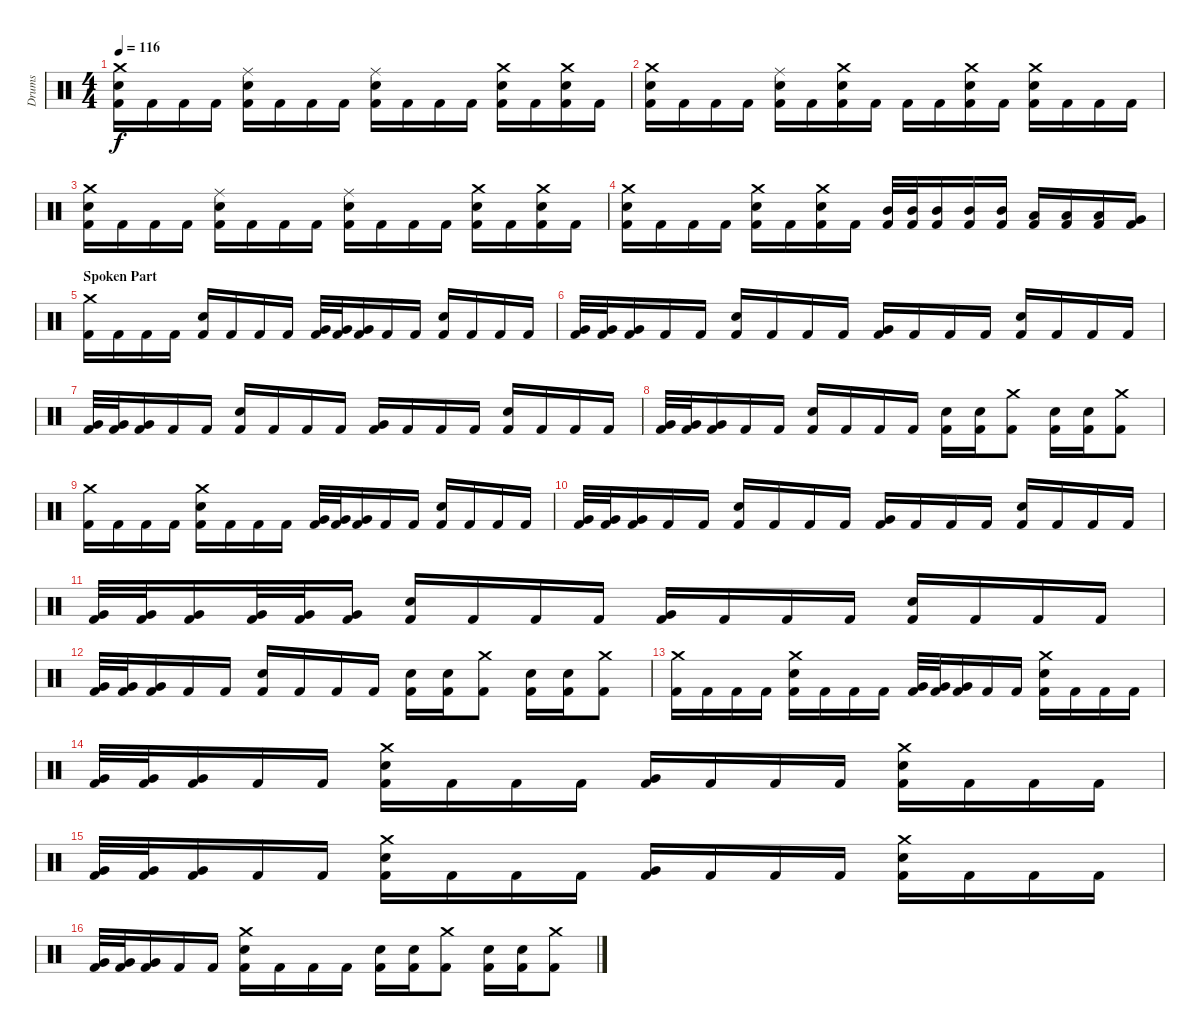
\track ("Drums" "Drums") {instrument percussion}
\staff {score}
\articulation defaults
\ts (4 4)
\section ("" "")
\tempo 116
\clef neutral
\ks c
("Crash medium (hit)" "Electric Snare (hit)" "Kick (hit) 2").16{dy f} "Kick (hit) 2".16 "Kick (hit) 2".16 "Kick (hit) 2".16 ("Ride (middle)" "Electric Snare (hit)" "Kick (hit) 2").16 "Kick (hit) 2".16 "Kick (hit) 2".16 "Kick (hit) 2".16 ("Ride (middle)" "Electric Snare (hit)" "Kick (hit) 2").16 "Kick (hit) 2".16 "Kick (hit) 2".16 "Kick (hit) 2".16 ("Crash medium (hit)" "Electric Snare (hit)" "Kick (hit) 2").16 "Kick (hit) 2".16 ("Crash medium (hit)" "Electric Snare (hit)" "Kick (hit) 2").16 "Kick (hit) 2".16 |
("Crash medium (hit)" "Electric Snare (hit)" "Kick (hit) 2").16 "Kick (hit) 2".16 "Kick (hit) 2".16 "Kick (hit) 2".16 ("Ride (middle)" "Electric Snare (hit)" "Kick (hit) 2").16 "Kick (hit) 2".16 ("Crash medium (hit)" "Electric Snare (hit)" "Kick (hit) 2").16 "Kick (hit) 2".16 "Kick (hit) 2".16 "Kick (hit) 2".16 ("Crash medium (hit)" "Electric Snare (hit)" "Kick (hit) 2").16 "Kick (hit) 2".16 ("Crash medium (hit)" "Electric Snare (hit)" "Kick (hit) 2").16 "Kick (hit) 2".16 "Kick (hit) 2".16 "Kick (hit) 2".16 |
("Crash medium (hit)" "Electric Snare (hit)" "Kick (hit) 2").16 "Kick (hit) 2".16 "Kick (hit) 2".16 "Kick (hit) 2".16 ("Ride (middle)" "Electric Snare (hit)" "Kick (hit) 2").16 "Kick (hit) 2".16 "Kick (hit) 2".16 "Kick (hit) 2".16 ("Ride (middle)" "Electric Snare (hit)" "Kick (hit) 2").16 "Kick (hit) 2".16 "Kick (hit) 2".16 "Kick (hit) 2".16 ("Crash medium (hit)" "Electric Snare (hit)" "Kick (hit) 2").16 "Kick (hit) 2".16 ("Crash medium (hit)" "Electric Snare (hit)" "Kick (hit) 2").16 "Kick (hit) 2".16 |
("Crash medium (hit)" "Electric Snare (hit)" "Kick (hit) 2").16 "Kick (hit) 2".16 "Kick (hit) 2".16 "Kick (hit) 2".16 ("Crash medium (hit)" "Electric Snare (hit)" "Kick (hit) 2").16 "Kick (hit) 2".16 ("Crash medium (hit)" "Electric Snare (hit)" "Kick (hit) 2").16 "Kick (hit) 2".16 ("Mid Tom (hit)" "Kick (hit) 2").32 ("Mid Tom (hit)" "Kick (hit) 2").32 ("Mid Tom (hit)" "Kick (hit) 2").16 ("Mid Tom (hit)" "Kick (hit) 2").16 ("Mid Tom (hit)" "Kick (hit) 2").16 ("Low Tom (hit)" "Kick (hit) 2").16 ("Low Tom (hit)" "Kick (hit) 2").16 ("Low Tom (hit)" "Kick (hit) 2").16 ("Very Low Tom (hit)" "Kick (hit) 2").16 |
\section ("" "Spoken Part")
("Crash medium (hit)" "Kick (hit) 2").16 "Kick (hit) 2".16 "Kick (hit) 2".16 "Kick (hit) 2".16 ("Electric Snare (hit)" "Kick (hit) 2").16 "Kick (hit) 2".16 "Kick (hit) 2".16 "Kick (hit) 2".16 ("Very Low Tom (hit)" "Kick (hit) 2").32 ("Very Low Tom (hit)" "Kick (hit) 2").32 ("Very Low Tom (hit)" "Kick (hit) 2").16 "Kick (hit) 2".16 "Kick (hit) 2".16 ("Electric Snare (hit)" "Kick (hit) 2").16 "Kick (hit) 2".16 "Kick (hit) 2".16 "Kick (hit) 2".16 |
("Very Low Tom (hit)" "Kick (hit) 2").32 ("Very Low Tom (hit)" "Kick (hit) 2").32 ("Very Low Tom (hit)" "Kick (hit) 2").16 "Kick (hit) 2".16 "Kick (hit) 2".16 ("Electric Snare (hit)" "Kick (hit) 2").16 "Kick (hit) 2".16 "Kick (hit) 2".16 "Kick (hit) 2".16 ("Very Low Tom (hit)" "Kick (hit) 2").16 "Kick (hit) 2".16 "Kick (hit) 2".16 "Kick (hit) 2".16 ("Electric Snare (hit)" "Kick (hit) 2").16 "Kick (hit) 2".16 "Kick (hit) 2".16 "Kick (hit) 2".16 |
("Very Low Tom (hit)" "Kick (hit) 2").32 ("Very Low Tom (hit)" "Kick (hit) 2").32 ("Very Low Tom (hit)" "Kick (hit) 2").16 "Kick (hit) 2".16 "Kick (hit) 2".16 ("Electric Snare (hit)" "Kick (hit) 2").16 "Kick (hit) 2".16 "Kick (hit) 2".16 "Kick (hit) 2".16 ("Very Low Tom (hit)" "Kick (hit) 2").16 "Kick (hit) 2".16 "Kick (hit) 2".16 "Kick (hit) 2".16 ("Electric Snare (hit)" "Kick (hit) 2").16 "Kick (hit) 2".16 "Kick (hit) 2".16 "Kick (hit) 2".16 |
("Very Low Tom (hit)" "Kick (hit) 2").32 ("Very Low Tom (hit)" "Kick (hit) 2").32 ("Very Low Tom (hit)" "Kick (hit) 2").16 "Kick (hit) 2".16 "Kick (hit) 2".16 ("Electric Snare (hit)" "Kick (hit) 2").16 "Kick (hit) 2".16 "Kick (hit) 2".16 "Kick (hit) 2".16 ("Electric Snare (hit)" "Kick (hit) 2").16 ("Electric Snare (hit)" "Kick (hit) 2").16 ("Crash medium (hit)" "Kick (hit) 2").8 ("Electric Snare (hit)" "Kick (hit) 2").16 ("Electric Snare (hit)" "Kick (hit) 2").16 ("Crash medium (hit)" "Kick (hit) 2").8 |
("Crash medium (hit)" "Kick (hit) 2").16 "Kick (hit) 2".16 "Kick (hit) 2".16 "Kick (hit) 2".16 ("Crash medium (hit)" "Electric Snare (hit)" "Kick (hit) 2").16 "Kick (hit) 2".16 "Kick (hit) 2".16 "Kick (hit) 2".16 ("Very Low Tom (hit)" "Kick (hit) 2").32 ("Very Low Tom (hit)" "Kick (hit) 2").32 ("Very Low Tom (hit)" "Kick (hit) 2").16 "Kick (hit) 2".16 "Kick (hit) 2".16 ("Electric Snare (hit)" "Kick (hit) 2").16 "Kick (hit) 2".16 "Kick (hit) 2".16 "Kick (hit) 2".16 |
("Very Low Tom (hit)" "Kick (hit) 2").32 ("Very Low Tom (hit)" "Kick (hit) 2").32 ("Very Low Tom (hit)" "Kick (hit) 2").16 "Kick (hit) 2".16 "Kick (hit) 2".16 ("Electric Snare (hit)" "Kick (hit) 2").16 "Kick (hit) 2".16 "Kick (hit) 2".16 "Kick (hit) 2".16 ("Very Low Tom (hit)" "Kick (hit) 2").16 "Kick (hit) 2".16 "Kick (hit) 2".16 "Kick (hit) 2".16 ("Electric Snare (hit)" "Kick (hit) 2").16 "Kick (hit) 2".16 "Kick (hit) 2".16 "Kick (hit) 2".16 |
("Very Low Tom (hit)" "Kick (hit) 2").32 ("Very Low Tom (hit)" "Kick (hit) 2").32 ("Very Low Tom (hit)" "Kick (hit) 2").16 ("Very Low Tom (hit)" "Kick (hit) 2").32 ("Very Low Tom (hit)" "Kick (hit) 2").32 ("Very Low Tom (hit)" "Kick (hit) 2").16 ("Electric Snare (hit)" "Kick (hit) 2").16 "Kick (hit) 2".16 "Kick (hit) 2".16 "Kick (hit) 2".16 ("Very Low Tom (hit)" "Kick (hit) 2").16 "Kick (hit) 2".16 "Kick (hit) 2".16 "Kick (hit) 2".16 ("Electric Snare (hit)" "Kick (hit) 2").16 "Kick (hit) 2".16 "Kick (hit) 2".16 "Kick (hit) 2".16 |
("Very Low Tom (hit)" "Kick (hit) 2").32 ("Very Low Tom (hit)" "Kick (hit) 2").32 ("Very Low Tom (hit)" "Kick (hit) 2").16 "Kick (hit) 2".16 "Kick (hit) 2".16 ("Electric Snare (hit)" "Kick (hit) 2").16 "Kick (hit) 2".16 "Kick (hit) 2".16 "Kick (hit) 2".16 ("Electric Snare (hit)" "Kick (hit) 2").16 ("Electric Snare (hit)" "Kick (hit) 2").16 ("Crash medium (hit)" "Kick (hit) 2").8 ("Electric Snare (hit)" "Kick (hit) 2").16 ("Electric Snare (hit)" "Kick (hit) 2").16 ("Crash medium (hit)" "Kick (hit) 2").8 |
("Crash medium (hit)" "Kick (hit) 2").16 "Kick (hit) 2".16 "Kick (hit) 2".16 "Kick (hit) 2".16 ("Crash medium (hit)" "Electric Snare (hit)" "Kick (hit) 2").16 "Kick (hit) 2".16 "Kick (hit) 2".16 "Kick (hit) 2".16 ("Very Low Tom (hit)" "Kick (hit) 2").32 ("Very Low Tom (hit)" "Kick (hit) 2").32 ("Very Low Tom (hit)" "Kick (hit) 2").16 "Kick (hit) 2".16 "Kick (hit) 2".16 ("Crash medium (hit)" "Electric Snare (hit)" "Kick (hit) 2").16 "Kick (hit) 2".16 "Kick (hit) 2".16 "Kick (hit) 2".16 |
("Very Low Tom (hit)" "Kick (hit) 2").32 ("Very Low Tom (hit)" "Kick (hit) 2").32 ("Very Low Tom (hit)" "Kick (hit) 2").16 "Kick (hit) 2".16 "Kick (hit) 2".16 ("Crash medium (hit)" "Electric Snare (hit)" "Kick (hit) 2").16 "Kick (hit) 2".16 "Kick (hit) 2".16 "Kick (hit) 2".16 ("Very Low Tom (hit)" "Kick (hit) 2").16 "Kick (hit) 2".16 "Kick (hit) 2".16 "Kick (hit) 2".16 ("Crash medium (hit)" "Electric Snare (hit)" "Kick (hit) 2").16 "Kick (hit) 2".16 "Kick (hit) 2".16 "Kick (hit) 2".16 |
("Very Low Tom (hit)" "Kick (hit) 2").32 ("Very Low Tom (hit)" "Kick (hit) 2").32 ("Very Low Tom (hit)" "Kick (hit) 2").16 "Kick (hit) 2".16 "Kick (hit) 2".16 ("Crash medium (hit)" "Electric Snare (hit)" "Kick (hit) 2").16 "Kick (hit) 2".16 "Kick (hit) 2".16 "Kick (hit) 2".16 ("Very Low Tom (hit)" "Kick (hit) 2").16 "Kick (hit) 2".16 "Kick (hit) 2".16 "Kick (hit) 2".16 ("Crash medium (hit)" "Electric Snare (hit)" "Kick (hit) 2").16 "Kick (hit) 2".16 "Kick (hit) 2".16 "Kick (hit) 2".16 |
("Very Low Tom (hit)" "Kick (hit) 2").32 ("Very Low Tom (hit)" "Kick (hit) 2").32 ("Very Low Tom (hit)" "Kick (hit) 2").16 "Kick (hit) 2".16 "Kick (hit) 2".16 ("Crash medium (hit)" "Electric Snare (hit)" "Kick (hit) 2").16 "Kick (hit) 2".16 "Kick (hit) 2".16 "Kick (hit) 2".16 ("Electric Snare (hit)" "Kick (hit) 2").16 ("Electric Snare (hit)" "Kick (hit) 2").16 ("Crash medium (hit)" "Kick (hit) 2").8 ("Electric Snare (hit)" "Kick (hit) 2").16 ("Electric Snare (hit)" "Kick (hit) 2").16 ("Crash medium (hit)" "Kick (hit) 2").8
